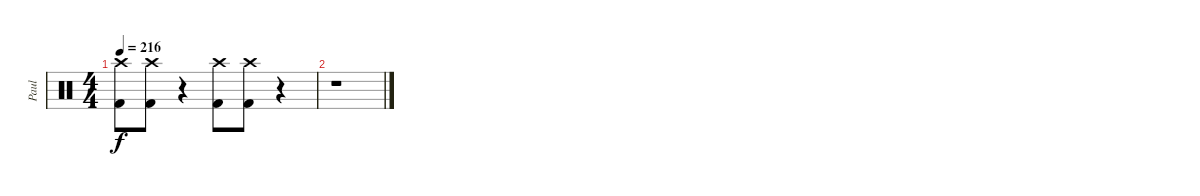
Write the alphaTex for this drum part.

\track ("Paul" "Paul") {instrument percussion}
\staff {score}
\articulation defaults
\ts (4 4)
\tempo 216
\clef neutral
\ks c
("Crash high (hit)" "Kick (hit) 2").8{dy f} ("Crash high (hit)" "Kick (hit) 2").8 r.4 ("Crash high (hit)" "Kick (hit) 2").8 ("Crash high (hit)" "Kick (hit) 2").8 r.4 |
r.1
